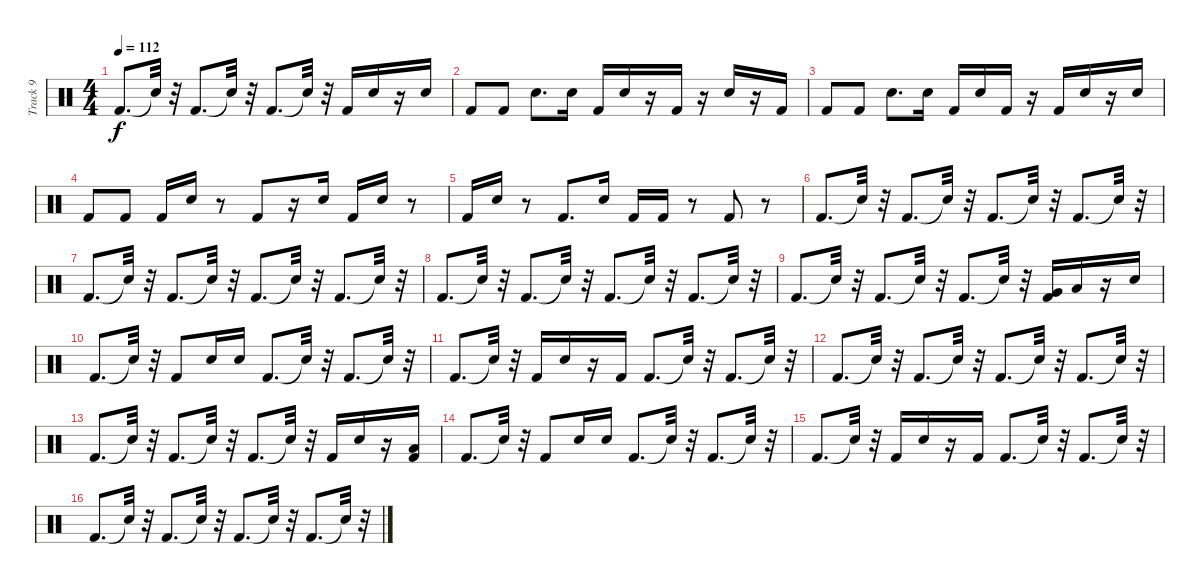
\track ("Track 9" "Track 9") {instrument percussion}
\staff {score}
\articulation defaults
\ts (4 4)
\tempo 112
\clef neutral
\ks c "Kick (hit) 2".8{d dy f} "Snare (hit)"{t}.32
r.32 "Kick (hit) 2".8{d} "Snare (hit)"{t}.32 r.32 "Kick (hit) 2".8{d} "Snare (hit)"{t}.32 r.32 "Kick (hit) 2".16 "Snare (hit) 2".16 r.16 "Snare (hit) 2".16 |
"Kick (hit) 2".8 "Kick (hit) 2".8 "Snare (hit) 2".8{d} "Snare (hit) 2".16 "Kick (hit) 2".16 "Snare (hit) 2".16 r.16 "Kick (hit) 2".16 r.16 "Snare (hit) 2".16 r.16 "Kick (hit) 2".16 |
"Kick (hit) 2".8 "Kick (hit) 2".8 "Snare (hit) 2".8{d} "Snare (hit) 2".16 "Kick (hit) 2".16 "Snare (hit) 2".16 "Kick (hit) 2".16 r.16 "Kick (hit) 2".16 "Snare (hit) 2".16 r.16 "Snare (hit) 2".16 |
"Kick (hit) 2".8 "Kick (hit) 2".8 "Kick (hit) 2".16 "Snare (hit) 2".16 r.8 "Kick (hit) 2".8 r.16 "Snare (hit) 2".16 "Kick (hit) 2".16 "Snare (hit) 2".16 r.8 |
"Kick (hit) 2".16 "Snare (hit) 2".16 r.8 "Kick (hit) 2".8{d} "Snare (hit) 2".16 "Kick (hit) 2".16 "Kick (hit) 2".16 r.8 "Kick (hit) 2".8 r.8 |
"Kick (hit) 2".8{d} "Snare (hit)"{t}.32 r.32 "Kick (hit) 2".8{d} "Snare (hit)"{t}.32 r.32 "Kick (hit) 2".8{d} "Snare (hit)"{t}.32 r.32 "Kick (hit) 2".8{d} "Snare (hit)"{t}.32 r.32 |
"Kick (hit) 2".8{d} "Snare (hit)"{t}.32 r.32 "Kick (hit) 2".8{d} "Snare (hit)"{t}.32 r.32 "Kick (hit) 2".8{d} "Snare (hit)"{t}.32 r.32 "Kick (hit) 2".8{d} "Snare (hit)"{t}.32 r.32 |
"Kick (hit) 2".8{d} "Snare (hit)"{t}.32 r.32 "Kick (hit) 2".8{d} "Snare (hit)"{t}.32 r.32 "Kick (hit) 2".8{d} "Snare (hit)"{t}.32 r.32 "Kick (hit) 2".8{d} "Snare (hit)"{t}.32 r.32 |
"Kick (hit) 2".8{d} "Snare (hit)"{t}.32 r.32 "Kick (hit) 2".8{d} "Snare (hit)"{t}.32 r.32 "Kick (hit) 2".8{d} "Snare (hit)"{t}.32 r.32 ("Kick (hit) 2" "Very Low Tom (hit)").16 "Low Floor Tom (hit)".16 r.16 "Snare (hit) 2".16 |
"Kick (hit) 2".8{d} "Snare (hit)"{t}.32 r.32 "Kick (hit) 2".8 "Snare (hit) 2".16 "Snare (hit) 2".16 "Kick (hit) 2".8{d} "Snare (hit)"{t}.32 r.32 "Kick (hit) 2".8{d} "Snare (hit)"{t}.32 r.32 |
"Kick (hit) 2".8{d} "Snare (hit)"{t}.32 r.32 "Kick (hit) 2".16 "Snare (hit) 2".16 r.16 "Kick (hit) 2".16 "Kick (hit) 2".8{d} "Snare (hit)"{t}.32 r.32 "Kick (hit) 2".8{d} "Snare (hit)"{t}.32 r.32 |
"Kick (hit) 2".8{d} "Snare (hit)"{t}.32 r.32 "Kick (hit) 2".8{d} "Snare (hit)"{t}.32 r.32 "Kick (hit) 2".8{d} "Snare (hit)"{t}.32 r.32 "Kick (hit) 2".8{d} "Snare (hit)"{t}.32 r.32 |
"Kick (hit) 2".8{d} "Snare (hit)"{t}.32 r.32 "Kick (hit) 2".8{d} "Snare (hit)"{t}.32 r.32 "Kick (hit) 2".8{d} "Snare (hit)"{t}.32 r.32 "Kick (hit) 2".16 "Snare (hit) 2".16 r.16 ("Kick (hit) 2" "Low Floor Tom (hit)").16 |
"Kick (hit) 2".8{d} "Snare (hit)"{t}.32 r.32 "Kick (hit) 2".8 "Snare (hit) 2".16 "Snare (hit) 2".16 "Kick (hit) 2".8{d} "Snare (hit)"{t}.32 r.32 "Kick (hit) 2".8{d} "Snare (hit)"{t}.32 r.32 |
"Kick (hit) 2".8{d} "Snare (hit)"{t}.32 r.32 "Kick (hit) 2".16 "Snare (hit) 2".16 r.16 "Kick (hit) 2".16 "Kick (hit) 2".8{d} "Snare (hit)"{t}.32 r.32 "Kick (hit) 2".8{d} "Snare (hit)"{t}.32 r.32 |
"Kick (hit) 2".8{d} "Snare (hit)"{t}.32 r.32 "Kick (hit) 2".8{d} "Snare (hit)"{t}.32 r.32 "Kick (hit) 2".8{d} "Snare (hit)"{t}.32 r.32 "Kick (hit) 2".8{d} "Snare (hit)"{t}.32 r.32
